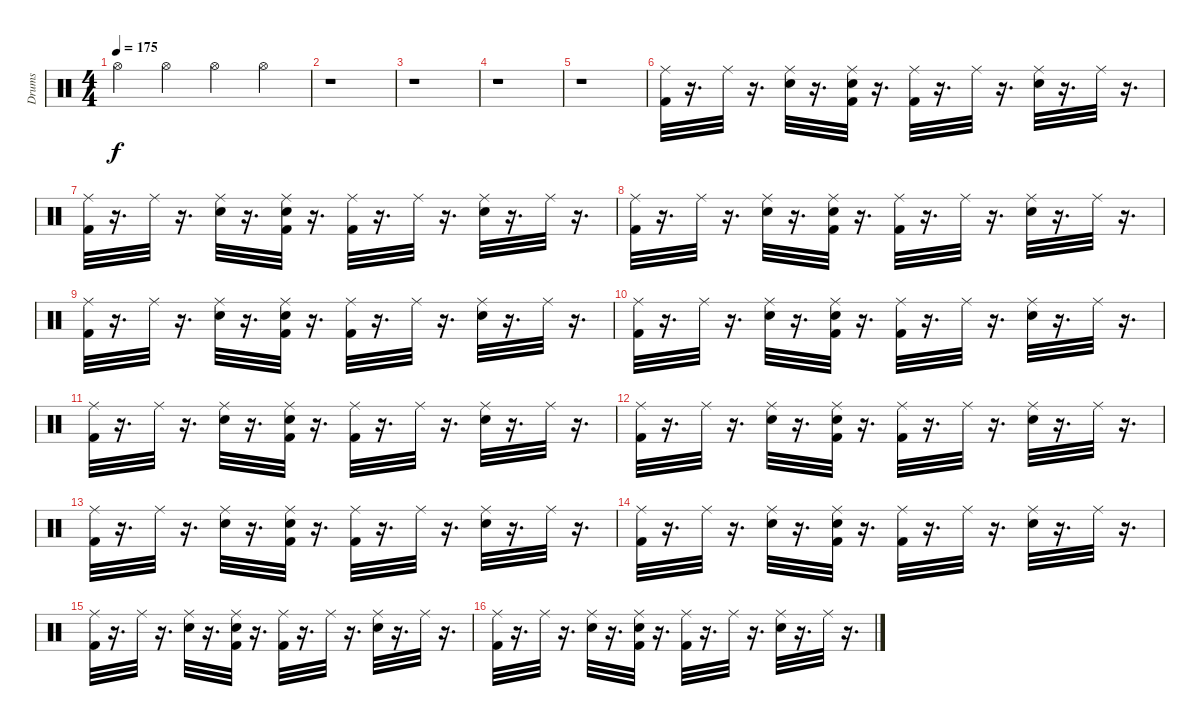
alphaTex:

\track ("Drums" "Drums") {instrument percussion}
\staff {score}
\articulation defaults
\ts (4 4)
\tempo 175
\clef neutral
\ks c "Hi-Hat (open)".4{dy f} "Hi-Hat (open)".4 "Hi-Hat (open)".4 "Hi-Hat (open)".4
|
r.1 |
r.1 |
r.1 |
r.1 |
("Ride (middle)" "Kick (hit) 2").32 r.16{d} "Ride (middle)".32 r.16{d} ("Ride (middle)" "Snare (hit) 2").32 r.16{d} ("Ride (middle)" "Snare (hit) 2" "Kick (hit) 2").32 r.16{d} ("Ride (middle)" "Kick (hit) 2").32 r.16{d} "Ride (middle)".32 r.16{d} ("Ride (middle)" "Snare (hit) 2").32 r.16{d} "Ride (middle)".32 r.16{d} |
("Kick (hit) 2" "Ride (middle)").32 r.16{d} "Ride (middle)".32 r.16{d} ("Snare (hit) 2" "Ride (middle)").32 r.16{d} ("Snare (hit) 2" "Ride (middle)" "Kick (hit) 2").32 r.16{d} ("Ride (middle)" "Kick (hit) 2").32 r.16{d} "Ride (middle)".32 r.16{d} ("Snare (hit) 2" "Ride (middle)").32 r.16{d} "Ride (middle)".32 r.16{d} |
("Kick (hit) 2" "Ride (middle)").32 r.16{d} "Ride (middle)".32 r.16{d} ("Ride (middle)" "Snare (hit) 2").32 r.16{d} ("Kick (hit) 2" "Snare (hit) 2" "Ride (middle)").32 r.16{d} ("Kick (hit) 2" "Ride (middle)").32 r.16{d} "Ride (middle)".32 r.16{d} ("Snare (hit) 2" "Ride (middle)").32 r.16{d} "Ride (middle)".32 r.16{d} |
("Kick (hit) 2" "Ride (middle)").32 r.16{d} "Ride (middle)".32 r.16{d} ("Ride (middle)" "Snare (hit) 2").32 r.16{d} ("Snare (hit) 2" "Kick (hit) 2" "Ride (middle)").32 r.16{d} ("Kick (hit) 2" "Ride (middle)").32 r.16{d} "Ride (middle)".32 r.16{d} ("Snare (hit) 2" "Ride (middle)").32 r.16{d} "Ride (middle)".32 r.16{d} |
("Ride (middle)" "Kick (hit) 2").32 r.16{d} "Ride (middle)".32 r.16{d} ("Ride (middle)" "Snare (hit) 2").32 r.16{d} ("Ride (middle)" "Snare (hit) 2" "Kick (hit) 2").32 r.16{d} ("Ride (middle)" "Kick (hit) 2").32 r.16{d} "Ride (middle)".32 r.16{d} ("Ride (middle)" "Snare (hit) 2").32 r.16{d} "Ride (middle)".32 r.16{d} |
("Kick (hit) 2" "Ride (middle)").32 r.16{d} "Ride (middle)".32 r.16{d} ("Snare (hit) 2" "Ride (middle)").32 r.16{d} ("Snare (hit) 2" "Ride (middle)" "Kick (hit) 2").32 r.16{d} ("Ride (middle)" "Kick (hit) 2").32 r.16{d} "Ride (middle)".32 r.16{d} ("Snare (hit) 2" "Ride (middle)").32 r.16{d} "Ride (middle)".32 r.16{d} |
("Kick (hit) 2" "Ride (middle)").32 r.16{d} "Ride (middle)".32 r.16{d} ("Ride (middle)" "Snare (hit) 2").32 r.16{d} ("Kick (hit) 2" "Snare (hit) 2" "Ride (middle)").32 r.16{d} ("Kick (hit) 2" "Ride (middle)").32 r.16{d} "Ride (middle)".32 r.16{d} ("Snare (hit) 2" "Ride (middle)").32 r.16{d} "Ride (middle)".32 r.16{d} |
("Kick (hit) 2" "Ride (middle)").32 r.16{d} "Ride (middle)".32 r.16{d} ("Ride (middle)" "Snare (hit) 2").32 r.16{d} ("Snare (hit) 2" "Kick (hit) 2" "Ride (middle)").32 r.16{d} ("Kick (hit) 2" "Ride (middle)").32 r.16{d} "Ride (middle)".32 r.16{d} ("Snare (hit) 2" "Ride (middle)").32 r.16{d} "Ride (middle)".32 r.16{d} |
("Ride (middle)" "Kick (hit) 2").32 r.16{d} "Ride (middle)".32 r.16{d} ("Ride (middle)" "Snare (hit) 2").32 r.16{d} ("Ride (middle)" "Snare (hit) 2" "Kick (hit) 2").32 r.16{d} ("Ride (middle)" "Kick (hit) 2").32 r.16{d} "Ride (middle)".32 r.16{d} ("Ride (middle)" "Snare (hit) 2").32 r.16{d} "Ride (middle)".32 r.16{d} |
("Kick (hit) 2" "Ride (middle)").32 r.16{d} "Ride (middle)".32 r.16{d} ("Snare (hit) 2" "Ride (middle)").32 r.16{d} ("Snare (hit) 2" "Ride (middle)" "Kick (hit) 2").32 r.16{d} ("Ride (middle)" "Kick (hit) 2").32 r.16{d} "Ride (middle)".32 r.16{d} ("Snare (hit) 2" "Ride (middle)").32 r.16{d} "Ride (middle)".32 r.16{d} |
("Kick (hit) 2" "Ride (middle)").32 r.16{d} "Ride (middle)".32 r.16{d} ("Ride (middle)" "Snare (hit) 2").32 r.16{d} ("Kick (hit) 2" "Snare (hit) 2" "Ride (middle)").32 r.16{d} ("Kick (hit) 2" "Ride (middle)").32 r.16{d} "Ride (middle)".32 r.16{d} ("Snare (hit) 2" "Ride (middle)").32 r.16{d} "Ride (middle)".32 r.16{d}
